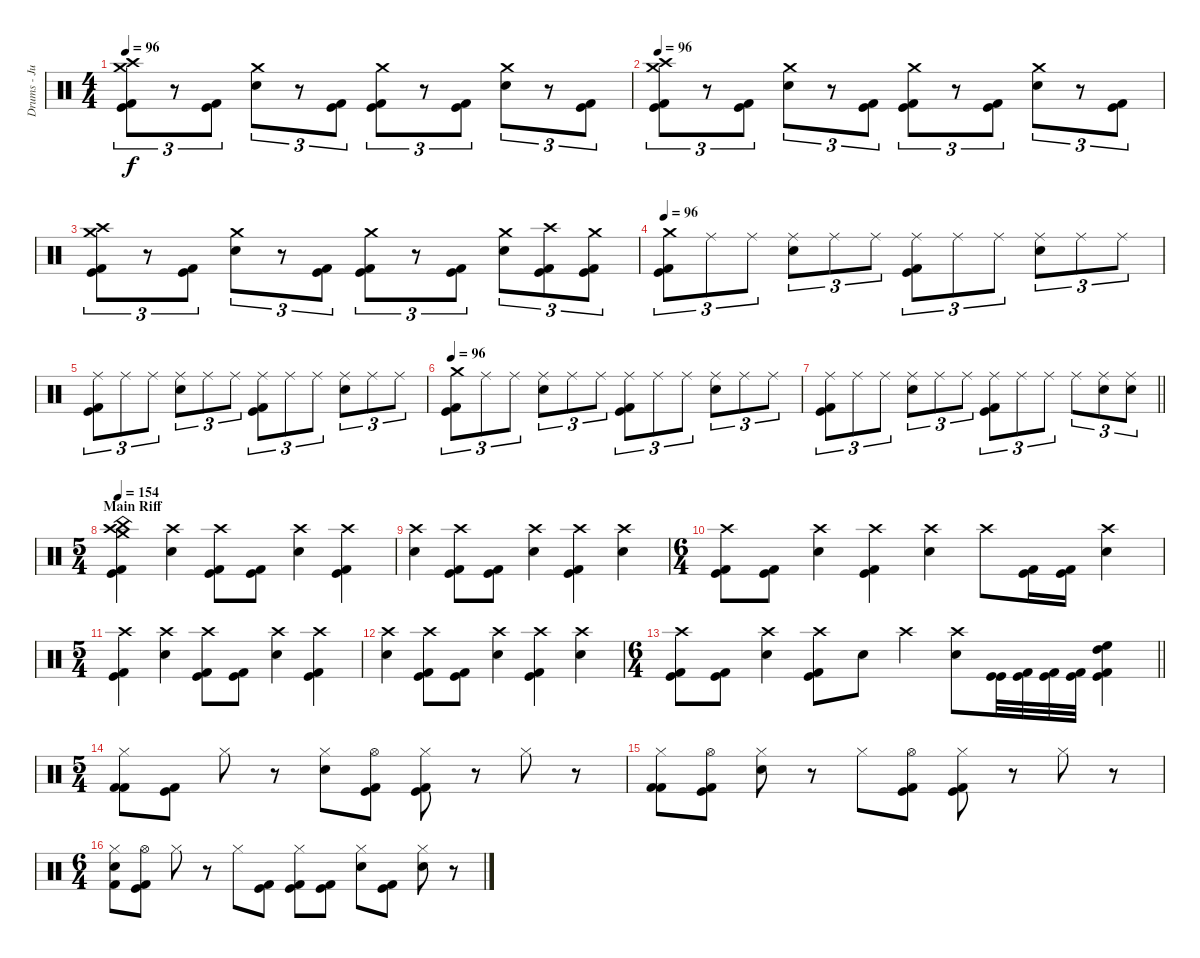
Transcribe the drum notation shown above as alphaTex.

\track ("Drums - Justin Foley" "Drums - Ju") {instrument percussion}
\staff {score}
\articulation defaults
\ts (4 4)
\tempo 96
\clef neutral
\ks c
("Crash medium (hit)" "Kick (hit) 2" "Kick (hit)" "Crash high (hit)").8{tu (3 2) dy f} r.8{tu (3 2)} ("Kick (hit) 2" "Kick (hit)").8{tu (3 2)} ("Crash medium (hit)" "Snare (hit) 2").8{tu (3 2)} r.8{tu (3 2)} ("Kick (hit) 2" "Kick (hit)").8{tu (3 2)} ("Crash medium (hit)" "Kick (hit) 2" "Kick (hit)").8{tu (3 2)} r.8{tu (3 2)} ("Kick (hit) 2" "Kick (hit)").8{tu (3 2)} ("Crash medium (hit)" "Snare (hit) 2").8{tu (3 2)} r.8{tu (3 2)} ("Kick (hit) 2" "Kick (hit)").8{tu (3 2)} |
\tempo 96
("Crash medium (hit)" "Kick (hit) 2" "Kick (hit)" "Crash high (hit)").8{tu (3 2)} r.8{tu (3 2)} ("Kick (hit) 2" "Kick (hit)").8{tu (3 2)} ("Crash medium (hit)" "Snare (hit) 2").8{tu (3 2)} r.8{tu (3 2)} ("Kick (hit) 2" "Kick (hit)").8{tu (3 2)} ("Crash medium (hit)" "Kick (hit) 2" "Kick (hit)").8{tu (3 2)} r.8{tu (3 2)} ("Kick (hit) 2" "Kick (hit)").8{tu (3 2)} ("Crash medium (hit)" "Snare (hit) 2").8{tu (3 2)} r.8{tu (3 2)} ("Kick (hit) 2" "Kick (hit)").8{tu (3 2)} |
("Crash medium (hit)" "Kick (hit) 2" "Kick (hit)" "Crash high (hit)").8{tu (3 2)} r.8{tu (3 2)} ("Kick (hit) 2" "Kick (hit)").8{tu (3 2)} ("Crash medium (hit)" "Snare (hit) 2").8{tu (3 2)} r.8{tu (3 2)} ("Kick (hit) 2" "Kick (hit)").8{tu (3 2)} ("Crash medium (hit)" "Kick (hit) 2" "Kick (hit)").8{tu (3 2)} r.8{tu (3 2)} ("Kick (hit) 2" "Kick (hit)").8{tu (3 2)} ("Crash medium (hit)" "Snare (hit) 2").8{tu (3 2)} ("Crash high (hit)" "Kick (hit) 2" "Kick (hit)").8{tu (3 2)} ("Crash medium (hit)" "Kick (hit) 2" "Kick (hit)").8{tu (3 2)} |
\tempo 96
("Crash medium (hit)" "Kick (hit) 2" "Kick (hit)").8{tu (3 2)} "Ride (middle)".8{tu (3 2)} "Ride (middle)".8{tu (3 2)} ("Ride (middle)" "Snare (hit) 2").8{tu (3 2)} "Ride (middle)".8{tu (3 2)} "Ride (middle)".8{tu (3 2)} ("Ride (middle)" "Kick (hit) 2" "Kick (hit)").8{tu (3 2)} "Ride (middle)".8{tu (3 2)} "Ride (middle)".8{tu (3 2)} ("Ride (middle)" "Snare (hit) 2").8{tu (3 2)} "Ride (middle)".8{tu (3 2)} "Ride (middle)".8{tu (3 2)} |
("Ride (middle)" "Kick (hit) 2" "Kick (hit)").8{tu (3 2)} "Ride (middle)".8{tu (3 2)} "Ride (middle)".8{tu (3 2)} ("Ride (middle)" "Snare (hit) 2").8{tu (3 2)} "Ride (middle)".8{tu (3 2)} "Ride (middle)".8{tu (3 2)} ("Ride (middle)" "Kick (hit) 2" "Kick (hit)").8{tu (3 2)} "Ride (middle)".8{tu (3 2)} "Ride (middle)".8{tu (3 2)} ("Ride (middle)" "Snare (hit) 2").8{tu (3 2)} "Ride (middle)".8{tu (3 2)} "Ride (middle)".8{tu (3 2)} |
\tempo 96
("Crash medium (hit)" "Kick (hit) 2" "Kick (hit)").8{tu (3 2)} "Ride (middle)".8{tu (3 2)} "Ride (middle)".8{tu (3 2)} ("Ride (middle)" "Snare (hit) 2").8{tu (3 2)} "Ride (middle)".8{tu (3 2)} "Ride (middle)".8{tu (3 2)} ("Ride (middle)" "Kick (hit) 2" "Kick (hit)").8{tu (3 2)} "Ride (middle)".8{tu (3 2)} "Ride (middle)".8{tu (3 2)} ("Ride (middle)" "Snare (hit) 2").8{tu (3 2)} "Ride (middle)".8{tu (3 2)} "Ride (middle)".8{tu (3 2)} |
\barLineRight lightlight
("Ride (middle)" "Kick (hit) 2" "Kick (hit)").8{tu (3 2)} "Ride (middle)".8{tu (3 2)} "Ride (middle)".8{tu (3 2)} ("Ride (middle)" "Snare (hit) 2").8{tu (3 2)} "Ride (middle)".8{tu (3 2)} "Ride (middle)".8{tu (3 2)} ("Ride (middle)" "Kick (hit) 2" "Kick (hit)").8{tu (3 2)} "Ride (middle)".8{tu (3 2)} "Ride (middle)".8{tu (3 2)} "Ride (middle)".8{tu (3 2)} ("Ride (middle)" "Snare (hit) 2").8{tu (3 2)} ("Ride (middle)" "Snare (hit) 2").8{tu (3 2)} |
\ts (5 4)
\section ("" "Main Riff")
\tempo 154
("Crash high (hit)" "Kick (hit) 2" "Kick (hit)" "Crash medium (hit)" "China (hit)").4 ("Crash high (hit)" "Snare (hit) 2").4 ("Crash high (hit)" "Kick (hit) 2" "Kick (hit)").8 ("Kick (hit) 2" "Kick (hit)").8 ("Crash high (hit)" "Snare (hit) 2").4 ("Crash high (hit)" "Kick (hit) 2" "Kick (hit)").4 |
("Crash high (hit)" "Snare (hit) 2").4 ("Crash high (hit)" "Kick (hit) 2" "Kick (hit)").8 ("Kick (hit) 2" "Kick (hit)").8 ("Crash high (hit)" "Snare (hit) 2").4 ("Crash high (hit)" "Kick (hit) 2" "Kick (hit)").4 ("Crash high (hit)" "Snare (hit) 2").4 |
\ts (6 4)
("Crash high (hit)" "Kick (hit) 2" "Kick (hit)").8 ("Kick (hit) 2" "Kick (hit)").8 ("Crash high (hit)" "Snare (hit) 2").4 ("Crash high (hit)" "Kick (hit) 2" "Kick (hit)").4 ("Crash high (hit)" "Snare (hit) 2").4 "Crash high (hit)".8 ("Kick (hit) 2" "Kick (hit)").16 ("Kick (hit) 2" "Kick (hit)").16 ("Crash high (hit)" "Snare (hit) 2").4 |
\ts (5 4)
("Crash high (hit)" "Kick (hit) 2" "Kick (hit)").4 ("Crash high (hit)" "Snare (hit) 2").4 ("Crash high (hit)" "Kick (hit) 2" "Kick (hit)").8 ("Kick (hit) 2" "Kick (hit)").8 ("Crash high (hit)" "Snare (hit) 2").4 ("Crash high (hit)" "Kick (hit) 2" "Kick (hit)").4 |
("Crash high (hit)" "Snare (hit) 2").4 ("Crash high (hit)" "Kick (hit) 2" "Kick (hit)").8 ("Kick (hit) 2" "Kick (hit)").8 ("Crash high (hit)" "Snare (hit) 2").4 ("Crash high (hit)" "Kick (hit) 2" "Kick (hit)").4 ("Crash high (hit)" "Snare (hit) 2").4 |
\ts (6 4)
\barLineRight lightlight
("Crash high (hit)" "Kick (hit) 2" "Kick (hit)").8 ("Kick (hit) 2" "Kick (hit)").8 ("Crash high (hit)" "Snare (hit) 2").4 ("Crash high (hit)" "Kick (hit) 2" "Kick (hit)").8 "Snare (hit) 2".8 "Crash high (hit)".4 ("Crash high (hit)" "Snare (hit) 2").8 ("Kick (hit)" "Kick (hit)").32 ("Kick (hit) 2" "Kick (hit)").32 ("Kick (hit) 2" "Kick (hit)").32 ("Kick (hit) 2" "Kick (hit)").32 ("High Tom (hit)" "High Floor Tom (hit)" "Kick (hit) 2" "Kick (hit)").4 |
\ts (5 4)
("Hi-Hat (closed)" "Kick (hit) 2" "Kick (hit) 2").8 ("Kick (hit) 2" "Kick (hit)").8 "Hi-Hat (closed)".8 r.8 ("Hi-Hat (closed)" "Snare (hit) 2").8 ("Hi-Hat (open)" "Kick (hit) 2" "Kick (hit)").8 ("Hi-Hat (closed)" "Kick (hit) 2" "Kick (hit)").8 r.8 "Hi-Hat (closed)".8 r.8 |
("Hi-Hat (closed)" "Kick (hit) 2" "Kick (hit) 2").8 ("Hi-Hat (open)" "Kick (hit) 2" "Kick (hit)").8 ("Hi-Hat (closed)" "Snare (hit) 2").8 r.8 "Hi-Hat (closed)".8 ("Hi-Hat (open)" "Kick (hit) 2" "Kick (hit)").8 ("Hi-Hat (closed)" "Kick (hit) 2" "Kick (hit)").8 r.8 "Hi-Hat (closed)".8 r.8 |
\ts (6 4)
("Hi-Hat (closed)" "Snare (hit) 2" "Kick (hit) 2").8 ("Hi-Hat (open)" "Kick (hit) 2" "Kick (hit)").8 "Hi-Hat (closed)".8 r.8 "Hi-Hat (closed)".8 ("Kick (hit) 2" "Kick (hit)").8 ("Hi-Hat (closed)" "Kick (hit) 2" "Kick (hit)").8 ("Kick (hit) 2" "Kick (hit)").8 ("Hi-Hat (closed)" "Snare (hit) 2").8 ("Kick (hit) 2" "Kick (hit)").8 ("Hi-Hat (closed)" "Snare (hit) 2").8 r.8
